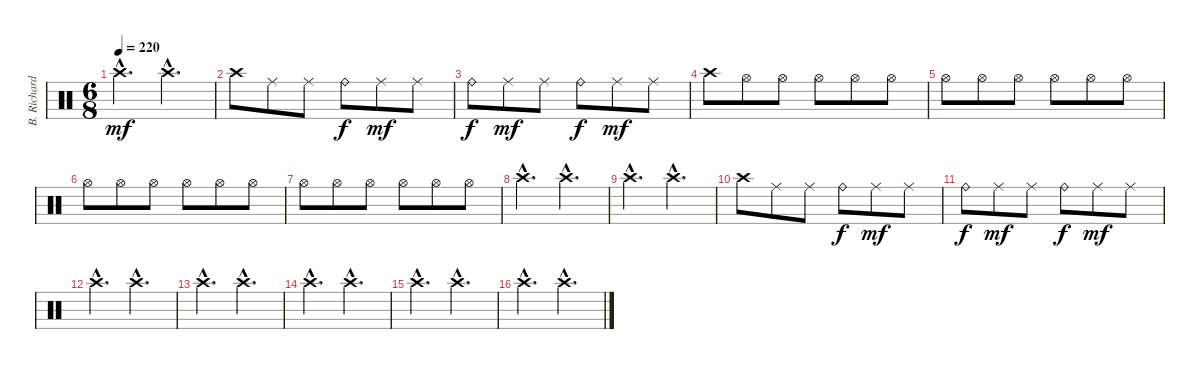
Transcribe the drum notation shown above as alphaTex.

\track ("B. Richardson Drums" "B. Richard") {instrument percussion}
\staff {score}
\articulation defaults
\ts (6 8)
\tempo 220
\clef neutral
\ks c "Crash high (hit)"{hac}.4{d dy mf} "Crash high (hit)"{hac}.4{d}
|
"Crash high (hit)".8 "Ride (middle)".8 "Ride (middle)".8 "Ride (bell)".8{dy f} "Ride (middle)".8{dy mf} "Ride (middle)".8 |
"Ride (bell)".8{dy f} "Ride (middle)".8{dy mf} "Ride (middle)".8 "Ride (bell)".8{dy f} "Ride (middle)".8{dy mf} "Ride (middle)".8 |
"Crash high (hit)".8 "Hi-Hat (open)".8 "Hi-Hat (open)".8 "Hi-Hat (open)".8 "Hi-Hat (open)".8 "Hi-Hat (open)".8 |
"Hi-Hat (open)".8 "Hi-Hat (open)".8 "Hi-Hat (open)".8 "Hi-Hat (open)".8 "Hi-Hat (open)".8 "Hi-Hat (open)".8 |
"Hi-Hat (open)".8 "Hi-Hat (open)".8 "Hi-Hat (open)".8 "Hi-Hat (open)".8 "Hi-Hat (open)".8 "Hi-Hat (open)".8 |
"Hi-Hat (open)".8 "Hi-Hat (open)".8 "Hi-Hat (open)".8 "Hi-Hat (open)".8 "Hi-Hat (open)".8 "Hi-Hat (open)".8 |
"Crash high (hit)"{hac}.4{d} "Crash high (hit)"{hac}.4{d} |
"Crash high (hit)"{hac}.4{d} "Crash high (hit)"{hac}.4{d} |
"Crash high (hit)".8 "Ride (middle)".8 "Ride (middle)".8 "Ride (bell)".8{dy f} "Ride (middle)".8{dy mf} "Ride (middle)".8 |
"Ride (bell)".8{dy f} "Ride (middle)".8{dy mf} "Ride (middle)".8 "Ride (bell)".8{dy f} "Ride (middle)".8{dy mf} "Ride (middle)".8 |
"Crash high (hit)"{hac}.4{d} "Crash high (hit)"{hac}.4{d} |
"Crash high (hit)"{hac}.4{d} "Crash high (hit)"{hac}.4{d} |
"Crash high (hit)"{hac}.4{d} "Crash high (hit)"{hac}.4{d} |
"Crash high (hit)"{hac}.4{d} "Crash high (hit)"{hac}.4{d} |
"Crash high (hit)"{hac}.4{d} "Crash high (hit)"{hac}.4{d}
